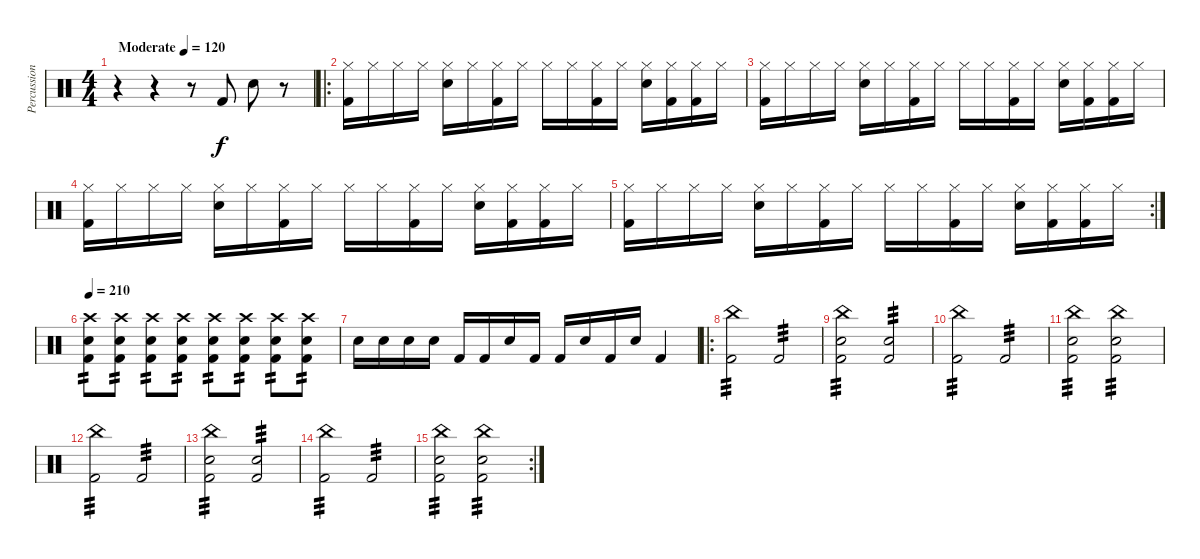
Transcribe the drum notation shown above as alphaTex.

\track ("Percussion" "Percussion") {instrument percussion}
\staff {score}
\articulation defaults
\ts (4 4)
\tempo (120 "Moderate")
\clef neutral
\ks c
r.4{dy f} r.4 r.8 "Kick (hit) 2".8 "Snare (hit) 2".8 r.8 |
\ro
("Hi-Hat (closed)" "Kick (hit) 2").16 "Hi-Hat (closed)".16 "Hi-Hat (closed)".16 "Hi-Hat (closed)".16 ("Hi-Hat (closed)" "Snare (hit) 2").16 "Hi-Hat (closed)".16 ("Hi-Hat (closed)" "Kick (hit) 2").16 "Hi-Hat (closed)".16 "Hi-Hat (closed)".16 "Hi-Hat (closed)".16 ("Hi-Hat (closed)" "Kick (hit) 2").16 "Hi-Hat (closed)".16 ("Hi-Hat (closed)" "Snare (hit) 2").16 ("Hi-Hat (closed)" "Kick (hit) 2").16 ("Hi-Hat (closed)" "Kick (hit) 2").16 "Hi-Hat (closed)".16 |
("Hi-Hat (closed)" "Kick (hit) 2").16 "Hi-Hat (closed)".16 "Hi-Hat (closed)".16 "Hi-Hat (closed)".16 ("Hi-Hat (closed)" "Snare (hit) 2").16 "Hi-Hat (closed)".16 ("Hi-Hat (closed)" "Kick (hit) 2").16 "Hi-Hat (closed)".16 "Hi-Hat (closed)".16 "Hi-Hat (closed)".16 ("Hi-Hat (closed)" "Kick (hit) 2").16 "Hi-Hat (closed)".16 ("Hi-Hat (closed)" "Snare (hit) 2").16 ("Hi-Hat (closed)" "Kick (hit) 2").16 ("Hi-Hat (closed)" "Kick (hit) 2").16 "Hi-Hat (closed)".16 |
("Hi-Hat (closed)" "Kick (hit) 2").16 "Hi-Hat (closed)".16 "Hi-Hat (closed)".16 "Hi-Hat (closed)".16 ("Hi-Hat (closed)" "Snare (hit) 2").16 "Hi-Hat (closed)".16 ("Hi-Hat (closed)" "Kick (hit) 2").16 "Hi-Hat (closed)".16 "Hi-Hat (closed)".16 "Hi-Hat (closed)".16 ("Hi-Hat (closed)" "Kick (hit) 2").16 "Hi-Hat (closed)".16 ("Hi-Hat (closed)" "Snare (hit) 2").16 ("Hi-Hat (closed)" "Kick (hit) 2").16 ("Hi-Hat (closed)" "Kick (hit) 2").16 "Hi-Hat (closed)".16 |
\rc 2
("Hi-Hat (closed)" "Kick (hit) 2").16 "Hi-Hat (closed)".16 "Hi-Hat (closed)".16 "Hi-Hat (closed)".16 ("Hi-Hat (closed)" "Snare (hit) 2").16 "Hi-Hat (closed)".16 ("Hi-Hat (closed)" "Kick (hit) 2").16 "Hi-Hat (closed)".16 "Hi-Hat (closed)".16 "Hi-Hat (closed)".16 ("Hi-Hat (closed)" "Kick (hit) 2").16 "Hi-Hat (closed)".16 ("Hi-Hat (closed)" "Snare (hit) 2").16 ("Hi-Hat (closed)" "Kick (hit) 2").16 ("Hi-Hat (closed)" "Kick (hit) 2").16 "Hi-Hat (closed)".16 |
\tempo 210
("Crash high (hit)" "Snare (hit) 2" "Kick (hit) 2").8{tp 2} ("Crash high (hit)" "Snare (hit) 2" "Kick (hit) 2").8{tp 2} ("Crash high (hit)" "Snare (hit) 2" "Kick (hit) 2").8{tp 2} ("Crash high (hit)" "Snare (hit) 2" "Kick (hit) 2").8{tp 2} ("Crash high (hit)" "Snare (hit) 2" "Kick (hit) 2").8{tp 2} ("Crash high (hit)" "Snare (hit) 2" "Kick (hit) 2").8{tp 2} ("Crash high (hit)" "Snare (hit) 2" "Kick (hit) 2").8{tp 2} ("Crash high (hit)" "Snare (hit) 2" "Kick (hit) 2").8{tp 2} |
"Snare (hit) 2".16 "Snare (hit) 2".16 "Snare (hit) 2".16 "Snare (hit) 2".16 "Kick (hit) 2".16 "Kick (hit) 2".16 "Snare (hit) 2".16 "Kick (hit) 2".16 "Kick (hit) 2".16 "Snare (hit) 2".16 "Kick (hit) 2".16 "Snare (hit) 2".16 "Kick (hit) 2".4 |
\ro
("China (hit)" "Kick (hit) 2").2{tp 3} "Kick (hit) 2".2{tp 3} |
("Snare (hit) 2" "China (hit)" "Kick (hit) 2").2{tp 3} ("Snare (hit) 2" "Kick (hit) 2").2{tp 3} |
("China (hit)" "Kick (hit) 2").2{tp 3} "Kick (hit) 2".2{tp 3} |
("Snare (hit) 2" "China (hit)" "Kick (hit) 2").2{tp 3} ("Snare (hit) 2" "China (hit)" "Kick (hit) 2").2{tp 3} |
("China (hit)" "Kick (hit) 2").2{tp 3} "Kick (hit) 2".2{tp 3} |
("Snare (hit) 2" "China (hit)" "Kick (hit) 2").2{tp 3} ("Snare (hit) 2" "Kick (hit) 2").2{tp 3} |
("China (hit)" "Kick (hit) 2").2{tp 3} "Kick (hit) 2".2{tp 3} |
\rc 2
("Snare (hit) 2" "China (hit)" "Kick (hit) 2").2{tp 3} ("Snare (hit) 2" "China (hit)" "Kick (hit) 2").2{tp 3}
